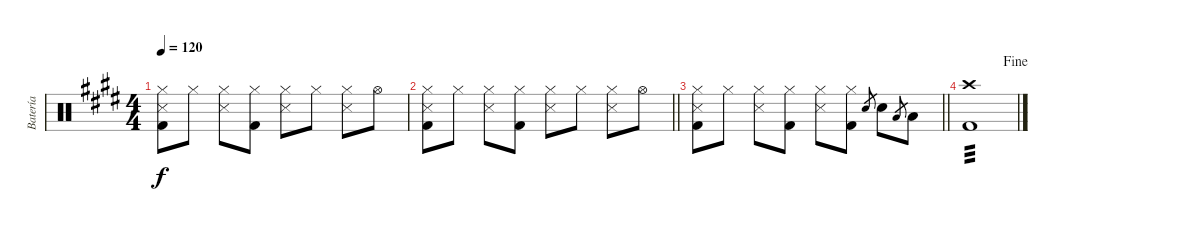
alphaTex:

\track ("Batería" "Batería") {instrument percussion}
\staff {score}
\articulation defaults
\ts (4 4)
\tempo 120
\clef neutral
\ks c#minor
("Hi-Hat (closed)" "Snare (side stick) 3" "Kick (hit) 2").8{dy f} "Hi-Hat (closed)".8 ("Hi-Hat (closed)" "Snare (side stick) 3").8 ("Hi-Hat (closed)" "Kick (hit) 2").8 ("Hi-Hat (closed)" "Snare (side stick) 3").8 "Hi-Hat (closed)".8 ("Hi-Hat (closed)" "Snare (side stick) 3").8 "Hi-Hat (open)".8 |
\barLineRight lightlight
("Hi-Hat (closed)" "Snare (side stick) 3" "Kick (hit) 2").8 "Hi-Hat (closed)".8 ("Hi-Hat (closed)" "Snare (side stick) 3").8 ("Hi-Hat (closed)" "Kick (hit) 2").8 ("Hi-Hat (closed)" "Snare (side stick) 3").8 "Hi-Hat (closed)".8 ("Hi-Hat (closed)" "Snare (side stick) 3").8 "Hi-Hat (open)".8 |
\barLineRight lightlight
("Hi-Hat (closed)" "Snare (side stick) 3" "Kick (hit) 2").8 "Hi-Hat (closed)".8 ("Hi-Hat (closed)" "Snare (side stick) 3").8 ("Hi-Hat (closed)" "Kick (hit) 2").8 ("Hi-Hat (closed)" "Snare (side stick) 3").8 ("Hi-Hat (closed)" "Kick (hit) 2").8 "Snare (hit) 2".8{gr} "Snare (hit) 2".8 "Low Tom (hit)".8{gr} "Low Tom (hit)".8 |
\jump fine
("Crash high (hit)" "Kick (hit) 2").1{tp 3}
